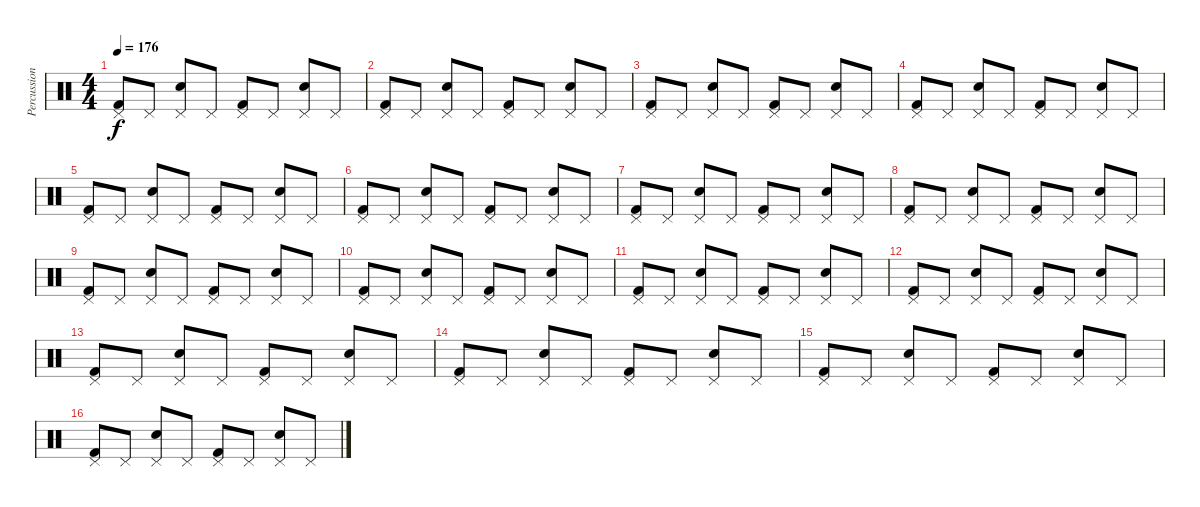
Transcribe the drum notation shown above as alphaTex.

\track ("Percussions" "Percussion") {instrument percussion}
\staff {score}
\articulation defaults
\ts (4 4)
\tempo 176
\clef neutral
\ks c
("Pedal Hi-Hat (hit)" "Kick (hit) 2").8{dy f} "Pedal Hi-Hat (hit)".8 ("Pedal Hi-Hat (hit)" "Electric Snare (hit)").8 "Pedal Hi-Hat (hit)".8 ("Pedal Hi-Hat (hit)" "Kick (hit) 2").8 "Pedal Hi-Hat (hit)".8 ("Pedal Hi-Hat (hit)" "Electric Snare (hit)").8 "Pedal Hi-Hat (hit)".8 |
("Pedal Hi-Hat (hit)" "Kick (hit) 2").8 "Pedal Hi-Hat (hit)".8 ("Pedal Hi-Hat (hit)" "Electric Snare (hit)").8 "Pedal Hi-Hat (hit)".8 ("Pedal Hi-Hat (hit)" "Kick (hit) 2").8 "Pedal Hi-Hat (hit)".8 ("Pedal Hi-Hat (hit)" "Electric Snare (hit)").8 "Pedal Hi-Hat (hit)".8 |
("Pedal Hi-Hat (hit)" "Kick (hit) 2").8 "Pedal Hi-Hat (hit)".8 ("Pedal Hi-Hat (hit)" "Electric Snare (hit)").8 "Pedal Hi-Hat (hit)".8 ("Pedal Hi-Hat (hit)" "Kick (hit) 2").8 "Pedal Hi-Hat (hit)".8 ("Pedal Hi-Hat (hit)" "Electric Snare (hit)").8 "Pedal Hi-Hat (hit)".8 |
("Pedal Hi-Hat (hit)" "Kick (hit) 2").8 "Pedal Hi-Hat (hit)".8 ("Pedal Hi-Hat (hit)" "Electric Snare (hit)").8 "Pedal Hi-Hat (hit)".8 ("Pedal Hi-Hat (hit)" "Kick (hit) 2").8 "Pedal Hi-Hat (hit)".8 ("Pedal Hi-Hat (hit)" "Electric Snare (hit)").8 "Pedal Hi-Hat (hit)".8 |
("Pedal Hi-Hat (hit)" "Kick (hit) 2").8 "Pedal Hi-Hat (hit)".8 ("Pedal Hi-Hat (hit)" "Electric Snare (hit)").8 "Pedal Hi-Hat (hit)".8 ("Pedal Hi-Hat (hit)" "Kick (hit) 2").8 "Pedal Hi-Hat (hit)".8 ("Pedal Hi-Hat (hit)" "Electric Snare (hit)").8 "Pedal Hi-Hat (hit)".8 |
("Pedal Hi-Hat (hit)" "Kick (hit) 2").8 "Pedal Hi-Hat (hit)".8 ("Pedal Hi-Hat (hit)" "Electric Snare (hit)").8 "Pedal Hi-Hat (hit)".8 ("Pedal Hi-Hat (hit)" "Kick (hit) 2").8 "Pedal Hi-Hat (hit)".8 ("Pedal Hi-Hat (hit)" "Electric Snare (hit)").8 "Pedal Hi-Hat (hit)".8 |
("Pedal Hi-Hat (hit)" "Kick (hit) 2").8 "Pedal Hi-Hat (hit)".8 ("Pedal Hi-Hat (hit)" "Electric Snare (hit)").8 "Pedal Hi-Hat (hit)".8 ("Pedal Hi-Hat (hit)" "Kick (hit) 2").8 "Pedal Hi-Hat (hit)".8 ("Pedal Hi-Hat (hit)" "Electric Snare (hit)").8 "Pedal Hi-Hat (hit)".8 |
("Pedal Hi-Hat (hit)" "Kick (hit) 2").8 "Pedal Hi-Hat (hit)".8 ("Pedal Hi-Hat (hit)" "Electric Snare (hit)").8 "Pedal Hi-Hat (hit)".8 ("Pedal Hi-Hat (hit)" "Kick (hit) 2").8 "Pedal Hi-Hat (hit)".8 ("Pedal Hi-Hat (hit)" "Electric Snare (hit)").8 "Pedal Hi-Hat (hit)".8 |
("Pedal Hi-Hat (hit)" "Kick (hit) 2").8 "Pedal Hi-Hat (hit)".8 ("Pedal Hi-Hat (hit)" "Electric Snare (hit)").8 "Pedal Hi-Hat (hit)".8 ("Pedal Hi-Hat (hit)" "Kick (hit) 2").8 "Pedal Hi-Hat (hit)".8 ("Pedal Hi-Hat (hit)" "Electric Snare (hit)").8 "Pedal Hi-Hat (hit)".8 |
("Pedal Hi-Hat (hit)" "Kick (hit) 2").8 "Pedal Hi-Hat (hit)".8 ("Pedal Hi-Hat (hit)" "Electric Snare (hit)").8 "Pedal Hi-Hat (hit)".8 ("Pedal Hi-Hat (hit)" "Kick (hit) 2").8 "Pedal Hi-Hat (hit)".8 ("Pedal Hi-Hat (hit)" "Electric Snare (hit)").8 "Pedal Hi-Hat (hit)".8 |
("Pedal Hi-Hat (hit)" "Kick (hit) 2").8 "Pedal Hi-Hat (hit)".8 ("Pedal Hi-Hat (hit)" "Electric Snare (hit)").8 "Pedal Hi-Hat (hit)".8 ("Pedal Hi-Hat (hit)" "Kick (hit) 2").8 "Pedal Hi-Hat (hit)".8 ("Pedal Hi-Hat (hit)" "Electric Snare (hit)").8 "Pedal Hi-Hat (hit)".8 |
("Pedal Hi-Hat (hit)" "Kick (hit) 2").8 "Pedal Hi-Hat (hit)".8 ("Pedal Hi-Hat (hit)" "Electric Snare (hit)").8 "Pedal Hi-Hat (hit)".8 ("Pedal Hi-Hat (hit)" "Kick (hit) 2").8 "Pedal Hi-Hat (hit)".8 ("Pedal Hi-Hat (hit)" "Electric Snare (hit)").8 "Pedal Hi-Hat (hit)".8 |
("Pedal Hi-Hat (hit)" "Kick (hit) 2").8 "Pedal Hi-Hat (hit)".8 ("Pedal Hi-Hat (hit)" "Electric Snare (hit)").8 "Pedal Hi-Hat (hit)".8 ("Pedal Hi-Hat (hit)" "Kick (hit) 2").8 "Pedal Hi-Hat (hit)".8 ("Pedal Hi-Hat (hit)" "Electric Snare (hit)").8 "Pedal Hi-Hat (hit)".8 |
("Pedal Hi-Hat (hit)" "Kick (hit) 2").8 "Pedal Hi-Hat (hit)".8 ("Pedal Hi-Hat (hit)" "Electric Snare (hit)").8 "Pedal Hi-Hat (hit)".8 ("Pedal Hi-Hat (hit)" "Kick (hit) 2").8 "Pedal Hi-Hat (hit)".8 ("Pedal Hi-Hat (hit)" "Electric Snare (hit)").8 "Pedal Hi-Hat (hit)".8 |
("Pedal Hi-Hat (hit)" "Kick (hit) 2").8 "Pedal Hi-Hat (hit)".8 ("Pedal Hi-Hat (hit)" "Electric Snare (hit)").8 "Pedal Hi-Hat (hit)".8 ("Pedal Hi-Hat (hit)" "Kick (hit) 2").8 "Pedal Hi-Hat (hit)".8 ("Pedal Hi-Hat (hit)" "Electric Snare (hit)").8 "Pedal Hi-Hat (hit)".8 |
("Pedal Hi-Hat (hit)" "Kick (hit) 2").8 "Pedal Hi-Hat (hit)".8 ("Pedal Hi-Hat (hit)" "Electric Snare (hit)").8 "Pedal Hi-Hat (hit)".8 ("Pedal Hi-Hat (hit)" "Kick (hit) 2").8 "Pedal Hi-Hat (hit)".8 ("Pedal Hi-Hat (hit)" "Electric Snare (hit)").8 "Pedal Hi-Hat (hit)".8
